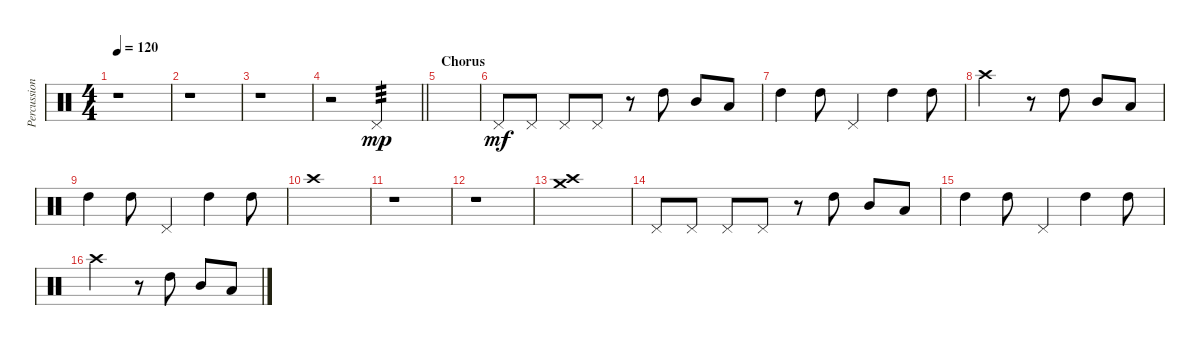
\track ("Percussion" "Percussion") {instrument percussion}
\staff {score}
\articulation defaults
\ts (4 4)
\tempo 120
\clef neutral
\ks c
r.1{dy mp} |
r.1 |
r.1 |
\barLineRight lightlight
r.2 "Pedal Hi-Hat (hit)".2{tp 3} |
\section ("" "Chorus")
|
"Pedal Hi-Hat (hit)".8{dy mf} "Pedal Hi-Hat (hit)".8 "Pedal Hi-Hat (hit)".8 "Pedal Hi-Hat (hit)".8 r.8 "High Tom (hit)".8 "Mid Tom (hit)".8 "Low Tom (hit)".8 |
"High Tom (hit)".4 "High Tom (hit)".8 "Pedal Hi-Hat (hit)".4 "High Tom (hit)".4 "High Tom (hit)".8 |
"Crash high (hit)".2 r.8 "High Tom (hit)".8 "Mid Tom (hit)".8 "Low Tom (hit)".8 |
"High Tom (hit)".4 "High Tom (hit)".8 "Pedal Hi-Hat (hit)".4 "High Tom (hit)".4 "High Tom (hit)".8 |
"Crash high (hit)".1 |
r.1 |
r.1 |
("Crash medium (hit)" "Crash high (hit)").1 |
"Pedal Hi-Hat (hit)".8 "Pedal Hi-Hat (hit)".8 "Pedal Hi-Hat (hit)".8 "Pedal Hi-Hat (hit)".8 r.8 "High Tom (hit)".8 "Mid Tom (hit)".8 "Low Tom (hit)".8 |
"High Tom (hit)".4 "High Tom (hit)".8 "Pedal Hi-Hat (hit)".4 "High Tom (hit)".4 "High Tom (hit)".8 |
"Crash high (hit)".2 r.8 "High Tom (hit)".8 "Mid Tom (hit)".8 "Low Tom (hit)".8
